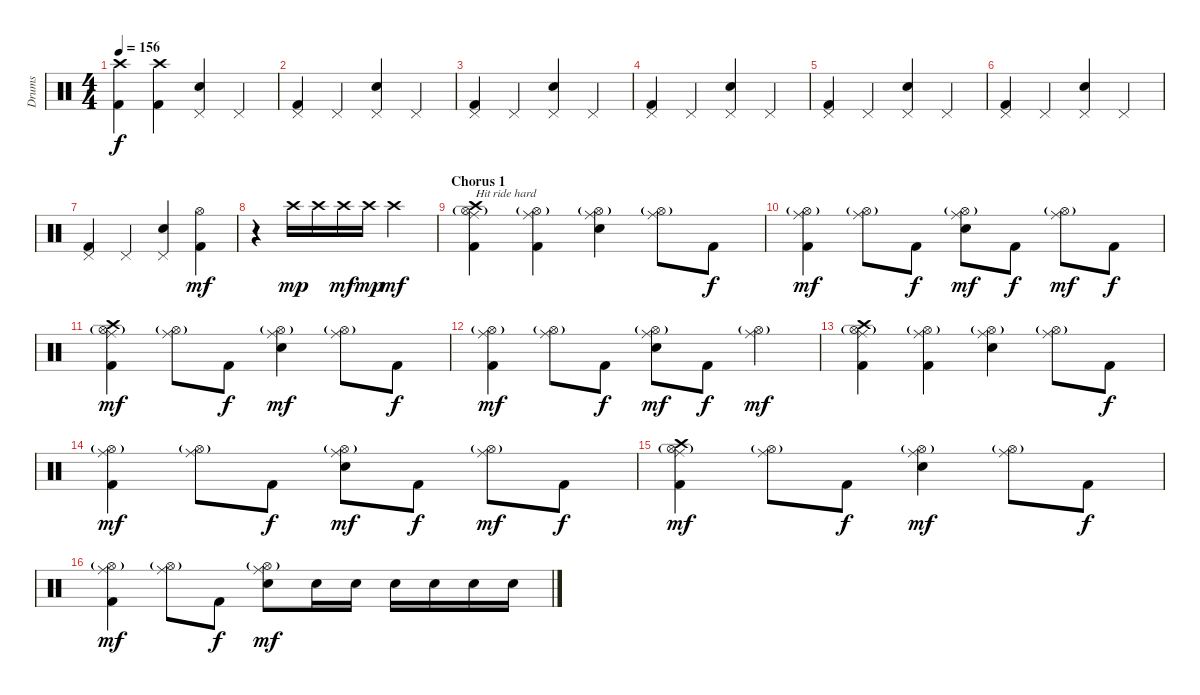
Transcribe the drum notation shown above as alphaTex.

\track ("Drums" "Drums") {instrument percussion}
\staff {score}
\articulation defaults
\ts (4 4)
\tempo 156
\clef neutral
\ks c
("Crash high (hit)" "Kick (hit) 2").4{dy f} ("Crash high (hit)" "Kick (hit) 2").4 ("Pedal Hi-Hat (hit)" "Electric Snare (hit)").4 "Pedal Hi-Hat (hit)".4 |
("Pedal Hi-Hat (hit)" "Kick (hit) 2").4 "Pedal Hi-Hat (hit)".4 ("Pedal Hi-Hat (hit)" "Electric Snare (hit)").4 "Pedal Hi-Hat (hit)".4 |
("Pedal Hi-Hat (hit)" "Kick (hit) 2").4 "Pedal Hi-Hat (hit)".4 ("Pedal Hi-Hat (hit)" "Electric Snare (hit)").4 "Pedal Hi-Hat (hit)".4 |
("Pedal Hi-Hat (hit)" "Kick (hit) 2").4 "Pedal Hi-Hat (hit)".4 ("Pedal Hi-Hat (hit)" "Electric Snare (hit)").4 "Pedal Hi-Hat (hit)".4 |
("Pedal Hi-Hat (hit)" "Kick (hit) 2").4 "Pedal Hi-Hat (hit)".4 ("Pedal Hi-Hat (hit)" "Electric Snare (hit)").4 "Pedal Hi-Hat (hit)".4 |
("Pedal Hi-Hat (hit)" "Kick (hit) 2").4 "Pedal Hi-Hat (hit)".4 ("Pedal Hi-Hat (hit)" "Electric Snare (hit)").4 "Pedal Hi-Hat (hit)".4 |
("Pedal Hi-Hat (hit)" "Kick (hit) 2").4 "Pedal Hi-Hat (hit)".4 ("Pedal Hi-Hat (hit)" "Electric Snare (hit)").4 ("Hi-Hat (open)" "Kick (hit) 2").4{dy mf} |
r.4 "Crash high (hit)".16{dy mp} "Crash high (hit)".16 "Crash high (hit)".16{dy mf} "Crash high (hit)".16{dy mp} "Crash high (hit)".2{dy mf} |
\section ("" "Chorus 1")
("Crash high (hit)" "Ride (middle)" "Hi-Hat (open)"{g} "Kick (hit) 2").4{txt "Hit ride hard"} ("Ride (middle)" "Hi-Hat (open)"{g} "Kick (hit) 2").4 ("Ride (middle)" "Hi-Hat (open)"{g} "Electric Snare (hit)").4 ("Ride (middle)" "Hi-Hat (open)"{g}).8 "Kick (hit) 2".8{dy f} |
("Ride (middle)" "Hi-Hat (open)"{g} "Kick (hit) 2").4{dy mf} ("Ride (middle)" "Hi-Hat (open)"{g}).8 "Kick (hit) 2".8{dy f} ("Ride (middle)" "Hi-Hat (open)"{g} "Electric Snare (hit)").8{dy mf} "Kick (hit) 2".8{dy f} ("Ride (middle)" "Hi-Hat (open)"{g}).8{dy mf} "Kick (hit) 2".8{dy f} |
("Crash high (hit)" "Ride (middle)" "Hi-Hat (open)"{g} "Kick (hit) 2").4{dy mf} ("Ride (middle)" "Hi-Hat (open)"{g}).8 "Kick (hit) 2".8{dy f} ("Ride (middle)" "Hi-Hat (open)"{g} "Electric Snare (hit)").4{dy mf} ("Ride (middle)" "Hi-Hat (open)"{g}).8 "Kick (hit) 2".8{dy f} |
("Ride (middle)" "Hi-Hat (open)"{g} "Kick (hit) 2").4{dy mf} ("Ride (middle)" "Hi-Hat (open)"{g}).8 "Kick (hit) 2".8{dy f} ("Ride (middle)" "Hi-Hat (open)"{g} "Electric Snare (hit)").8{dy mf} "Kick (hit) 2".8{dy f} ("Ride (middle)" "Hi-Hat (open)"{g}).4{dy mf} |
("Crash high (hit)" "Ride (middle)" "Hi-Hat (open)"{g} "Kick (hit) 2").4 ("Ride (middle)" "Hi-Hat (open)"{g} "Kick (hit) 2").4 ("Ride (middle)" "Hi-Hat (open)"{g} "Electric Snare (hit)").4 ("Ride (middle)" "Hi-Hat (open)"{g}).8 "Kick (hit) 2".8{dy f} |
("Ride (middle)" "Hi-Hat (open)"{g} "Kick (hit) 2").4{dy mf} ("Ride (middle)" "Hi-Hat (open)"{g}).8 "Kick (hit) 2".8{dy f} ("Ride (middle)" "Hi-Hat (open)"{g} "Electric Snare (hit)").8{dy mf} "Kick (hit) 2".8{dy f} ("Ride (middle)" "Hi-Hat (open)"{g}).8{dy mf} "Kick (hit) 2".8{dy f} |
("Crash high (hit)" "Ride (middle)" "Hi-Hat (open)"{g} "Kick (hit) 2").4{dy mf} ("Ride (middle)" "Hi-Hat (open)"{g}).8 "Kick (hit) 2".8{dy f} ("Ride (middle)" "Hi-Hat (open)"{g} "Electric Snare (hit)").4{dy mf} ("Ride (middle)" "Hi-Hat (open)"{g}).8 "Kick (hit) 2".8{dy f} |
("Ride (middle)" "Hi-Hat (open)"{g} "Kick (hit) 2").4{dy mf} ("Ride (middle)" "Hi-Hat (open)"{g}).8 "Kick (hit) 2".8{dy f} ("Ride (middle)" "Hi-Hat (open)"{g} "Electric Snare (hit)").8{dy mf} "Electric Snare (hit)".16 "Electric Snare (hit)".16 "Electric Snare (hit)".16 "Electric Snare (hit)".16 "Electric Snare (hit)".16 "Electric Snare (hit)".16
